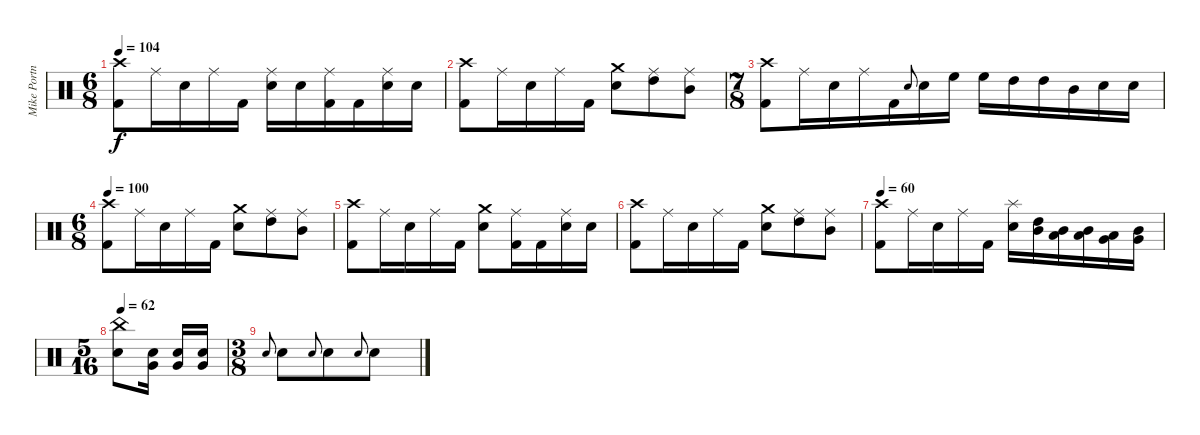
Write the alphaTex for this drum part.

\track ("Mike Portnoy" "Mike Portn") {instrument percussion}
\staff {score}
\articulation defaults
\ts (6 8)
\tempo 104
\clef neutral
\ks c
("Crash high (hit)" "Kick (hit) 2").8{dy f} "Ride (middle)".16 "Electric Snare (hit)".16 "Ride (middle)".16 "Kick (hit) 2".16 ("Ride (middle)" "Electric Snare (hit)").16 "Electric Snare (hit)".16 ("Ride (middle)" "Kick (hit) 2").16 "Kick (hit) 2".16 ("Ride (middle)" "Electric Snare (hit)").16 "Electric Snare (hit)".16 |
("Crash high (hit)" "Kick (hit) 2").8 "Ride (middle)".16 "Electric Snare (hit)".16 "Ride (middle)".16 "Kick (hit) 2".16 ("Crash medium (hit)" "Electric Snare (hit)").8 ("Ride (middle)" "High Tom (hit)").8 ("Ride (middle)" "Mid Tom (hit)").8 |
\ts (7 8)
("Crash high (hit)" "Kick (hit) 2").8 "Ride (middle)".16 "Electric Snare (hit)".16 "Ride (middle)".16 "Kick (hit) 2".16 "Electric Snare (hit)".8{gr onbeat} "Electric Snare (hit)".16 "High Floor Tom (hit)".16 "High Floor Tom (hit)".16 "High Tom (hit)".16 "High Tom (hit)".16 "Mid Tom (hit)".16 "Electric Snare (hit)".16 "Electric Snare (hit)".16 |
\ts (6 8)
\tempo 100
("Crash high (hit)" "Kick (hit) 2").8 "Ride (middle)".16 "Electric Snare (hit)".16 "Ride (middle)".16 "Kick (hit) 2".16 ("Crash medium (hit)" "Electric Snare (hit)").8 ("Ride (middle)" "High Tom (hit)").8 ("Ride (middle)" "Mid Tom (hit)").8 |
("Crash high (hit)" "Kick (hit) 2").8 "Ride (middle)".16 "Electric Snare (hit)".16 "Ride (middle)".16 "Kick (hit) 2".16 ("Crash medium (hit)" "Electric Snare (hit)").8 ("Ride (middle)" "Kick (hit) 2").16 "Kick (hit) 2".16 ("Ride (middle)" "Electric Snare (hit)").16 "Electric Snare (hit)".16 |
("Crash high (hit)" "Kick (hit) 2").8 "Ride (middle)".16 "Electric Snare (hit)".16 "Ride (middle)".16 "Kick (hit) 2".16 ("Crash medium (hit)" "Electric Snare (hit)").8 ("Ride (middle)" "High Tom (hit)").8 ("Ride (middle)" "Mid Tom (hit)").8 |
\tempo 60
("Crash high (hit)" "Kick (hit) 2").8 "Ride (middle)".16 "Electric Snare (hit)".16 "Ride (middle)".16 "Kick (hit) 2".16 ("Splash (hit)" "Electric Snare (hit)").16 ("High Tom (hit)" "Mid Tom (hit)").16 ("Low Tom (hit)" "Mid Tom (hit)").16 ("Low Tom (hit)" "Mid Tom (hit)").16 ("Low Tom (hit)" "Very Low Tom (hit)").16 ("Mid Tom (hit)" "Very Low Tom (hit)").16 |
\ts (5 16)
\tempo 62
("China (hit)" "Electric Snare (hit)").8 ("Very Low Tom (hit)" "Electric Snare (hit)").16 ("Very Low Tom (hit)" "Electric Snare (hit)").16 ("Very Low Tom (hit)" "Electric Snare (hit)").16 |
\ts (3 8)
"Electric Snare (hit)".8{gr onbeat} "Electric Snare (hit)".8 "Electric Snare (hit)".8{gr onbeat} "Electric Snare (hit)".8 "Electric Snare (hit)".8{gr onbeat} "Electric Snare (hit)".8
